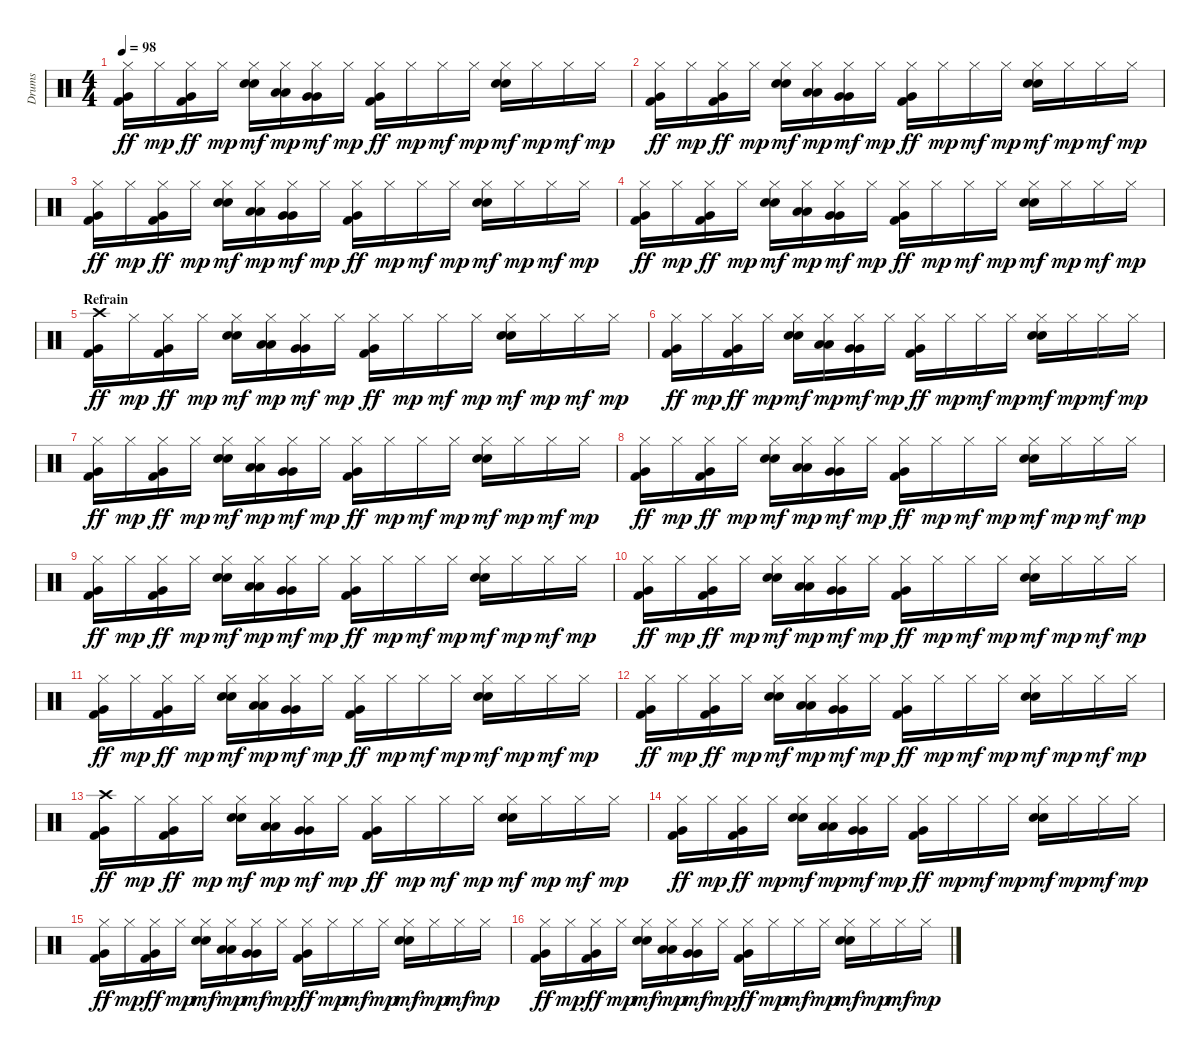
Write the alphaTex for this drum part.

\track ("Drums" "Drums") {instrument percussion}
\staff {score}
\articulation defaults
\ts (4 4)
\tempo 98
\clef neutral
\ks c
("Hi-Hat (closed)" "Very Low Tom (hit)" "Kick (hit) 2").16{dy ff} "Hi-Hat (closed)".16{dy mp} ("Hi-Hat (closed)" "Very Low Tom (hit)" "Kick (hit) 2").16{dy ff} "Hi-Hat (closed)".16{dy mp} ("Hi-Hat (closed)" "Electric Snare (hit)" "Snare (hit) 2").16{dy mf} ("Hi-Hat (closed)" "Low Tom (hit)" "Low Tom (hit)").16{dy mp} ("Hi-Hat (closed)" "Very Low Tom (hit)" "Very Low Tom (hit)").16{dy mf} "Hi-Hat (closed)".16{dy mp} ("Hi-Hat (closed)" "Very Low Tom (hit)" "Kick (hit) 2").16{dy ff} "Hi-Hat (closed)".16{dy mp} "Hi-Hat (closed)".16{dy mf} "Hi-Hat (closed)".16{dy mp} ("Hi-Hat (closed)" "Electric Snare (hit)" "Snare (hit) 2").16{dy mf} "Hi-Hat (closed)".16{dy mp} "Hi-Hat (closed)".16{dy mf} "Hi-Hat (closed)".16{dy mp} |
("Hi-Hat (closed)" "Very Low Tom (hit)" "Kick (hit) 2").16{dy ff} "Hi-Hat (closed)".16{dy mp} ("Hi-Hat (closed)" "Very Low Tom (hit)" "Kick (hit) 2").16{dy ff} "Hi-Hat (closed)".16{dy mp} ("Hi-Hat (closed)" "Electric Snare (hit)" "Snare (hit) 2").16{dy mf} ("Hi-Hat (closed)" "Low Tom (hit)" "Low Tom (hit)").16{dy mp} ("Hi-Hat (closed)" "Very Low Tom (hit)" "Very Low Tom (hit)").16{dy mf} "Hi-Hat (closed)".16{dy mp} ("Hi-Hat (closed)" "Very Low Tom (hit)" "Kick (hit) 2").16{dy ff} "Hi-Hat (closed)".16{dy mp} "Hi-Hat (closed)".16{dy mf} "Hi-Hat (closed)".16{dy mp} ("Hi-Hat (closed)" "Electric Snare (hit)" "Snare (hit) 2").16{dy mf} "Hi-Hat (closed)".16{dy mp} "Hi-Hat (closed)".16{dy mf} "Hi-Hat (closed)".16{dy mp} |
("Hi-Hat (closed)" "Very Low Tom (hit)" "Kick (hit) 2").16{dy ff} "Hi-Hat (closed)".16{dy mp} ("Hi-Hat (closed)" "Very Low Tom (hit)" "Kick (hit) 2").16{dy ff} "Hi-Hat (closed)".16{dy mp} ("Hi-Hat (closed)" "Electric Snare (hit)" "Snare (hit) 2").16{dy mf} ("Hi-Hat (closed)" "Low Tom (hit)" "Low Tom (hit)").16{dy mp} ("Hi-Hat (closed)" "Very Low Tom (hit)" "Very Low Tom (hit)").16{dy mf} "Hi-Hat (closed)".16{dy mp} ("Hi-Hat (closed)" "Very Low Tom (hit)" "Kick (hit) 2").16{dy ff} "Hi-Hat (closed)".16{dy mp} "Hi-Hat (closed)".16{dy mf} "Hi-Hat (closed)".16{dy mp} ("Hi-Hat (closed)" "Electric Snare (hit)" "Snare (hit) 2").16{dy mf} "Hi-Hat (closed)".16{dy mp} "Hi-Hat (closed)".16{dy mf} "Hi-Hat (closed)".16{dy mp} |
("Hi-Hat (closed)" "Very Low Tom (hit)" "Kick (hit) 2").16{dy ff} "Hi-Hat (closed)".16{dy mp} ("Hi-Hat (closed)" "Very Low Tom (hit)" "Kick (hit) 2").16{dy ff} "Hi-Hat (closed)".16{dy mp} ("Hi-Hat (closed)" "Electric Snare (hit)" "Snare (hit) 2").16{dy mf} ("Hi-Hat (closed)" "Low Tom (hit)" "Low Tom (hit)").16{dy mp} ("Hi-Hat (closed)" "Very Low Tom (hit)" "Very Low Tom (hit)").16{dy mf} "Hi-Hat (closed)".16{dy mp} ("Hi-Hat (closed)" "Very Low Tom (hit)" "Kick (hit) 2").16{dy ff} "Hi-Hat (closed)".16{dy mp} "Hi-Hat (closed)".16{dy mf} "Hi-Hat (closed)".16{dy mp} ("Hi-Hat (closed)" "Electric Snare (hit)" "Snare (hit) 2").16{dy mf} "Hi-Hat (closed)".16{dy mp} "Hi-Hat (closed)".16{dy mf} "Hi-Hat (closed)".16{dy mp} |
\section ("" "Refrain")
("Crash high (hit)" "Very Low Tom (hit)" "Kick (hit) 2").16{dy ff} "Hi-Hat (closed)".16{dy mp} ("Hi-Hat (closed)" "Very Low Tom (hit)" "Kick (hit) 2").16{dy ff} "Hi-Hat (closed)".16{dy mp} ("Hi-Hat (closed)" "Electric Snare (hit)" "Snare (hit) 2").16{dy mf} ("Hi-Hat (closed)" "Low Tom (hit)" "Low Tom (hit)").16{dy mp} ("Hi-Hat (closed)" "Very Low Tom (hit)" "Very Low Tom (hit)").16{dy mf} "Hi-Hat (closed)".16{dy mp} ("Hi-Hat (closed)" "Very Low Tom (hit)" "Kick (hit) 2").16{dy ff} "Hi-Hat (closed)".16{dy mp} "Hi-Hat (closed)".16{dy mf} "Hi-Hat (closed)".16{dy mp} ("Hi-Hat (closed)" "Electric Snare (hit)" "Snare (hit) 2").16{dy mf} "Hi-Hat (closed)".16{dy mp} "Hi-Hat (closed)".16{dy mf} "Hi-Hat (closed)".16{dy mp} |
("Hi-Hat (closed)" "Very Low Tom (hit)" "Kick (hit) 2").16{dy ff} "Hi-Hat (closed)".16{dy mp} ("Hi-Hat (closed)" "Very Low Tom (hit)" "Kick (hit) 2").16{dy ff} "Hi-Hat (closed)".16{dy mp} ("Hi-Hat (closed)" "Electric Snare (hit)" "Snare (hit) 2").16{dy mf} ("Hi-Hat (closed)" "Low Tom (hit)" "Low Tom (hit)").16{dy mp} ("Hi-Hat (closed)" "Very Low Tom (hit)" "Very Low Tom (hit)").16{dy mf} "Hi-Hat (closed)".16{dy mp} ("Hi-Hat (closed)" "Very Low Tom (hit)" "Kick (hit) 2").16{dy ff} "Hi-Hat (closed)".16{dy mp} "Hi-Hat (closed)".16{dy mf} "Hi-Hat (closed)".16{dy mp} ("Hi-Hat (closed)" "Electric Snare (hit)" "Snare (hit) 2").16{dy mf} "Hi-Hat (closed)".16{dy mp} "Hi-Hat (closed)".16{dy mf} "Hi-Hat (closed)".16{dy mp} |
("Hi-Hat (closed)" "Very Low Tom (hit)" "Kick (hit) 2").16{dy ff} "Hi-Hat (closed)".16{dy mp} ("Hi-Hat (closed)" "Very Low Tom (hit)" "Kick (hit) 2").16{dy ff} "Hi-Hat (closed)".16{dy mp} ("Hi-Hat (closed)" "Electric Snare (hit)" "Snare (hit) 2").16{dy mf} ("Hi-Hat (closed)" "Low Tom (hit)" "Low Tom (hit)").16{dy mp} ("Hi-Hat (closed)" "Very Low Tom (hit)" "Very Low Tom (hit)").16{dy mf} "Hi-Hat (closed)".16{dy mp} ("Hi-Hat (closed)" "Very Low Tom (hit)" "Kick (hit) 2").16{dy ff} "Hi-Hat (closed)".16{dy mp} "Hi-Hat (closed)".16{dy mf} "Hi-Hat (closed)".16{dy mp} ("Hi-Hat (closed)" "Electric Snare (hit)" "Snare (hit) 2").16{dy mf} "Hi-Hat (closed)".16{dy mp} "Hi-Hat (closed)".16{dy mf} "Hi-Hat (closed)".16{dy mp} |
("Hi-Hat (closed)" "Very Low Tom (hit)" "Kick (hit) 2").16{dy ff} "Hi-Hat (closed)".16{dy mp} ("Hi-Hat (closed)" "Very Low Tom (hit)" "Kick (hit) 2").16{dy ff} "Hi-Hat (closed)".16{dy mp} ("Hi-Hat (closed)" "Electric Snare (hit)" "Snare (hit) 2").16{dy mf} ("Hi-Hat (closed)" "Low Tom (hit)" "Low Tom (hit)").16{dy mp} ("Hi-Hat (closed)" "Very Low Tom (hit)" "Very Low Tom (hit)").16{dy mf} "Hi-Hat (closed)".16{dy mp} ("Hi-Hat (closed)" "Very Low Tom (hit)" "Kick (hit) 2").16{dy ff} "Hi-Hat (closed)".16{dy mp} "Hi-Hat (closed)".16{dy mf} "Hi-Hat (closed)".16{dy mp} ("Hi-Hat (closed)" "Electric Snare (hit)" "Snare (hit) 2").16{dy mf} "Hi-Hat (closed)".16{dy mp} "Hi-Hat (closed)".16{dy mf} "Hi-Hat (closed)".16{dy mp} |
("Hi-Hat (closed)" "Very Low Tom (hit)" "Kick (hit) 2").16{dy ff} "Hi-Hat (closed)".16{dy mp} ("Hi-Hat (closed)" "Very Low Tom (hit)" "Kick (hit) 2").16{dy ff} "Hi-Hat (closed)".16{dy mp} ("Hi-Hat (closed)" "Electric Snare (hit)" "Snare (hit) 2").16{dy mf} ("Hi-Hat (closed)" "Low Tom (hit)" "Low Tom (hit)").16{dy mp} ("Hi-Hat (closed)" "Very Low Tom (hit)" "Very Low Tom (hit)").16{dy mf} "Hi-Hat (closed)".16{dy mp} ("Hi-Hat (closed)" "Very Low Tom (hit)" "Kick (hit) 2").16{dy ff} "Hi-Hat (closed)".16{dy mp} "Hi-Hat (closed)".16{dy mf} "Hi-Hat (closed)".16{dy mp} ("Hi-Hat (closed)" "Electric Snare (hit)" "Snare (hit) 2").16{dy mf} "Hi-Hat (closed)".16{dy mp} "Hi-Hat (closed)".16{dy mf} "Hi-Hat (closed)".16{dy mp} |
("Hi-Hat (closed)" "Very Low Tom (hit)" "Kick (hit) 2").16{dy ff} "Hi-Hat (closed)".16{dy mp} ("Hi-Hat (closed)" "Very Low Tom (hit)" "Kick (hit) 2").16{dy ff} "Hi-Hat (closed)".16{dy mp} ("Hi-Hat (closed)" "Electric Snare (hit)" "Snare (hit) 2").16{dy mf} ("Hi-Hat (closed)" "Low Tom (hit)" "Low Tom (hit)").16{dy mp} ("Hi-Hat (closed)" "Very Low Tom (hit)" "Very Low Tom (hit)").16{dy mf} "Hi-Hat (closed)".16{dy mp} ("Hi-Hat (closed)" "Very Low Tom (hit)" "Kick (hit) 2").16{dy ff} "Hi-Hat (closed)".16{dy mp} "Hi-Hat (closed)".16{dy mf} "Hi-Hat (closed)".16{dy mp} ("Hi-Hat (closed)" "Electric Snare (hit)" "Snare (hit) 2").16{dy mf} "Hi-Hat (closed)".16{dy mp} "Hi-Hat (closed)".16{dy mf} "Hi-Hat (closed)".16{dy mp} |
("Hi-Hat (closed)" "Very Low Tom (hit)" "Kick (hit) 2").16{dy ff} "Hi-Hat (closed)".16{dy mp} ("Hi-Hat (closed)" "Very Low Tom (hit)" "Kick (hit) 2").16{dy ff} "Hi-Hat (closed)".16{dy mp} ("Hi-Hat (closed)" "Electric Snare (hit)" "Snare (hit) 2").16{dy mf} ("Hi-Hat (closed)" "Low Tom (hit)" "Low Tom (hit)").16{dy mp} ("Hi-Hat (closed)" "Very Low Tom (hit)" "Very Low Tom (hit)").16{dy mf} "Hi-Hat (closed)".16{dy mp} ("Hi-Hat (closed)" "Very Low Tom (hit)" "Kick (hit) 2").16{dy ff} "Hi-Hat (closed)".16{dy mp} "Hi-Hat (closed)".16{dy mf} "Hi-Hat (closed)".16{dy mp} ("Hi-Hat (closed)" "Electric Snare (hit)" "Snare (hit) 2").16{dy mf} "Hi-Hat (closed)".16{dy mp} "Hi-Hat (closed)".16{dy mf} "Hi-Hat (closed)".16{dy mp} |
("Hi-Hat (closed)" "Very Low Tom (hit)" "Kick (hit) 2").16{dy ff} "Hi-Hat (closed)".16{dy mp} ("Hi-Hat (closed)" "Very Low Tom (hit)" "Kick (hit) 2").16{dy ff} "Hi-Hat (closed)".16{dy mp} ("Hi-Hat (closed)" "Electric Snare (hit)" "Snare (hit) 2").16{dy mf} ("Hi-Hat (closed)" "Low Tom (hit)" "Low Tom (hit)").16{dy mp} ("Hi-Hat (closed)" "Very Low Tom (hit)" "Very Low Tom (hit)").16{dy mf} "Hi-Hat (closed)".16{dy mp} ("Hi-Hat (closed)" "Very Low Tom (hit)" "Kick (hit) 2").16{dy ff} "Hi-Hat (closed)".16{dy mp} "Hi-Hat (closed)".16{dy mf} "Hi-Hat (closed)".16{dy mp} ("Hi-Hat (closed)" "Electric Snare (hit)" "Snare (hit) 2").16{dy mf} "Hi-Hat (closed)".16{dy mp} "Hi-Hat (closed)".16{dy mf} "Hi-Hat (closed)".16{dy mp} |
("Crash high (hit)" "Very Low Tom (hit)" "Kick (hit) 2").16{dy ff} "Hi-Hat (closed)".16{dy mp} ("Hi-Hat (closed)" "Very Low Tom (hit)" "Kick (hit) 2").16{dy ff} "Hi-Hat (closed)".16{dy mp} ("Hi-Hat (closed)" "Electric Snare (hit)" "Snare (hit) 2").16{dy mf} ("Hi-Hat (closed)" "Low Tom (hit)" "Low Tom (hit)").16{dy mp} ("Hi-Hat (closed)" "Very Low Tom (hit)" "Very Low Tom (hit)").16{dy mf} "Hi-Hat (closed)".16{dy mp} ("Hi-Hat (closed)" "Very Low Tom (hit)" "Kick (hit) 2").16{dy ff} "Hi-Hat (closed)".16{dy mp} "Hi-Hat (closed)".16{dy mf} "Hi-Hat (closed)".16{dy mp} ("Hi-Hat (closed)" "Electric Snare (hit)" "Snare (hit) 2").16{dy mf} "Hi-Hat (closed)".16{dy mp} "Hi-Hat (closed)".16{dy mf} "Hi-Hat (closed)".16{dy mp} |
("Hi-Hat (closed)" "Very Low Tom (hit)" "Kick (hit) 2").16{dy ff} "Hi-Hat (closed)".16{dy mp} ("Hi-Hat (closed)" "Very Low Tom (hit)" "Kick (hit) 2").16{dy ff} "Hi-Hat (closed)".16{dy mp} ("Hi-Hat (closed)" "Electric Snare (hit)" "Snare (hit) 2").16{dy mf} ("Hi-Hat (closed)" "Low Tom (hit)" "Low Tom (hit)").16{dy mp} ("Hi-Hat (closed)" "Very Low Tom (hit)" "Very Low Tom (hit)").16{dy mf} "Hi-Hat (closed)".16{dy mp} ("Hi-Hat (closed)" "Very Low Tom (hit)" "Kick (hit) 2").16{dy ff} "Hi-Hat (closed)".16{dy mp} "Hi-Hat (closed)".16{dy mf} "Hi-Hat (closed)".16{dy mp} ("Hi-Hat (closed)" "Electric Snare (hit)" "Snare (hit) 2").16{dy mf} "Hi-Hat (closed)".16{dy mp} "Hi-Hat (closed)".16{dy mf} "Hi-Hat (closed)".16{dy mp} |
("Hi-Hat (closed)" "Very Low Tom (hit)" "Kick (hit) 2").16{dy ff} "Hi-Hat (closed)".16{dy mp} ("Hi-Hat (closed)" "Very Low Tom (hit)" "Kick (hit) 2").16{dy ff} "Hi-Hat (closed)".16{dy mp} ("Hi-Hat (closed)" "Electric Snare (hit)" "Snare (hit) 2").16{dy mf} ("Hi-Hat (closed)" "Low Tom (hit)" "Low Tom (hit)").16{dy mp} ("Hi-Hat (closed)" "Very Low Tom (hit)" "Very Low Tom (hit)").16{dy mf} "Hi-Hat (closed)".16{dy mp} ("Hi-Hat (closed)" "Very Low Tom (hit)" "Kick (hit) 2").16{dy ff} "Hi-Hat (closed)".16{dy mp} "Hi-Hat (closed)".16{dy mf} "Hi-Hat (closed)".16{dy mp} ("Hi-Hat (closed)" "Electric Snare (hit)" "Snare (hit) 2").16{dy mf} "Hi-Hat (closed)".16{dy mp} "Hi-Hat (closed)".16{dy mf} "Hi-Hat (closed)".16{dy mp} |
("Hi-Hat (closed)" "Very Low Tom (hit)" "Kick (hit) 2").16{dy ff} "Hi-Hat (closed)".16{dy mp} ("Hi-Hat (closed)" "Very Low Tom (hit)" "Kick (hit) 2").16{dy ff} "Hi-Hat (closed)".16{dy mp} ("Hi-Hat (closed)" "Electric Snare (hit)" "Snare (hit) 2").16{dy mf} ("Hi-Hat (closed)" "Low Tom (hit)" "Low Tom (hit)").16{dy mp} ("Hi-Hat (closed)" "Very Low Tom (hit)" "Very Low Tom (hit)").16{dy mf} "Hi-Hat (closed)".16{dy mp} ("Hi-Hat (closed)" "Very Low Tom (hit)" "Kick (hit) 2").16{dy ff} "Hi-Hat (closed)".16{dy mp} "Hi-Hat (closed)".16{dy mf} "Hi-Hat (closed)".16{dy mp} ("Hi-Hat (closed)" "Electric Snare (hit)" "Snare (hit) 2").16{dy mf} "Hi-Hat (closed)".16{dy mp} "Hi-Hat (closed)".16{dy mf} "Hi-Hat (closed)".16{dy mp}
